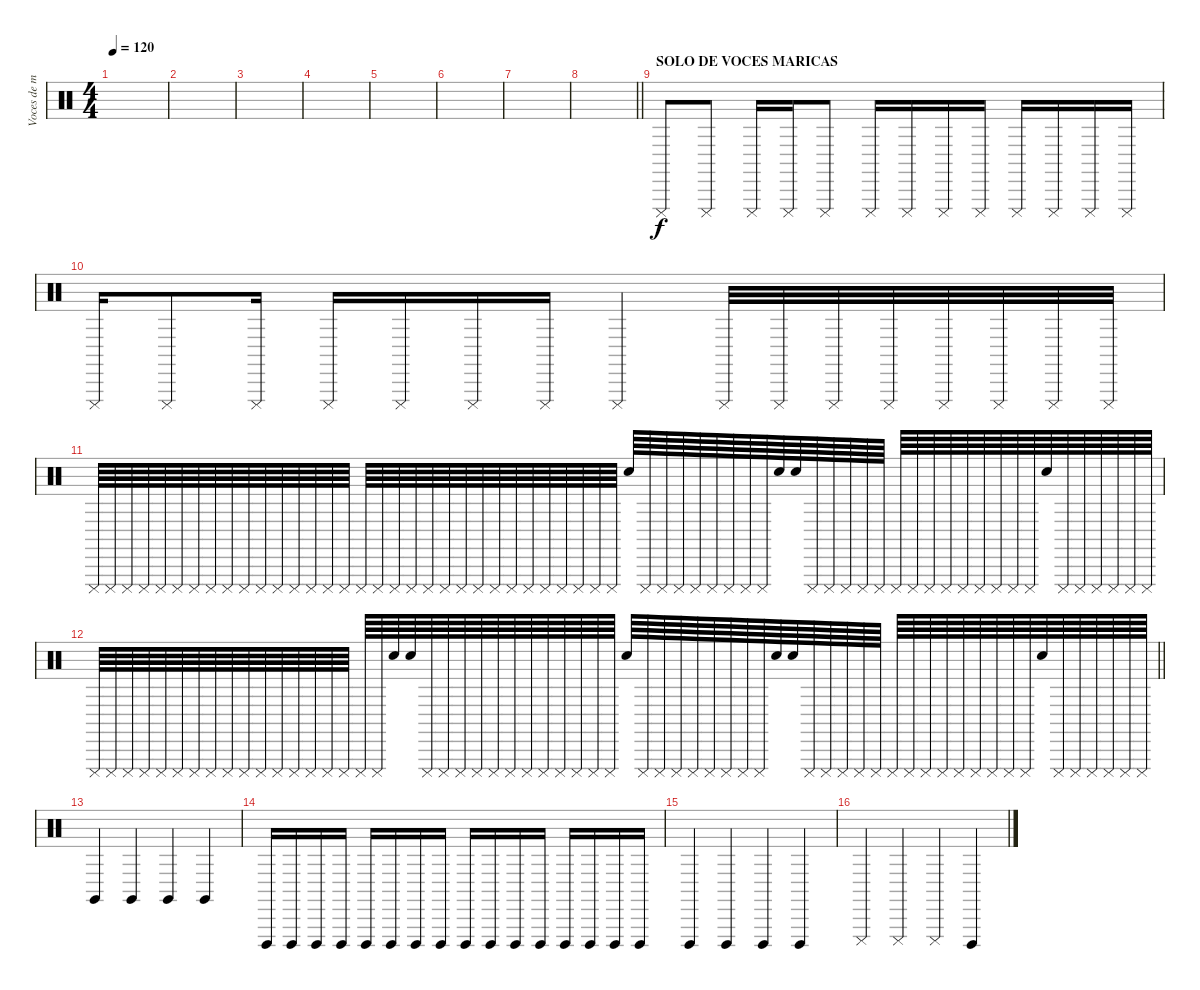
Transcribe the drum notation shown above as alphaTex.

\track ("Voces de marica!!" "Voces de m") {instrument percussion}
\staff {score}
\articulation defaults
\ts (4 4)
\tempo 120
\clef neutral
\ks c
|
|
|
|
|
|
|
\barLineRight lightlight
|
\section ("" "SOLO DE VOCES MARICAS")
"Cuica (mute)".8 "Cuica (mute)".8 "Cuica (mute)".16 "Cuica (mute)".16 "Cuica (mute)".8 "Cuica (mute)".16 "Cuica (mute)".16 "Cuica (mute)".16 "Cuica (mute)".16 "Cuica (mute)".16 "Cuica (mute)".16 "Cuica (mute)".16 "Cuica (mute)".16 |
"Cuica (mute)".16 "Cuica (mute)".8 "Cuica (mute)".16 "Cuica (mute)".16 "Cuica (mute)".16 "Cuica (mute)".16 "Cuica (mute)".16 "Cuica (mute)".4 "Cuica (mute)".32 "Cuica (mute)".32 "Cuica (mute)".32 "Cuica (mute)".32 "Cuica (mute)".32 "Cuica (mute)".32 "Cuica (mute)".32 "Cuica (mute)".32 |
"Cuica (mute)".64 "Cuica (mute)".64 "Cuica (mute)".64 "Cuica (mute)".64 "Cuica (mute)".64 "Cuica (mute)".64 "Cuica (mute)".64 "Cuica (mute)".64 "Cuica (mute)".64 "Cuica (mute)".64 "Cuica (mute)".64 "Cuica (mute)".64 "Cuica (mute)".64 "Cuica (mute)".64 "Cuica (mute)".64 "Cuica (mute)".64 "Cuica (mute)".64 "Cuica (mute)".64 "Cuica (mute)".64 "Cuica (mute)".64 "Cuica (mute)".64 "Cuica (mute)".64 "Cuica (mute)".64 "Cuica (mute)".64 "Cuica (mute)".64 "Cuica (mute)".64 "Cuica (mute)".64 "Cuica (mute)".64 "Cuica (mute)".64 "Cuica (mute)".64 "Cuica (mute)".64 "Cuica (mute)".64 "Snare (hit)".64 "Cuica (mute)".64 "Cuica (mute)".64 "Cuica (mute)".64 "Cuica (mute)".64 "Cuica (mute)".64 "Cuica (mute)".64 "Cuica (mute)".64 "Cuica (mute)".64 "Snare (hit)".64 "Snare (hit)".64 "Cuica (mute)".64 "Cuica (mute)".64 "Cuica (mute)".64 "Cuica (mute)".64 "Cuica (mute)".64 "Cuica (mute)".64 "Cuica (mute)".64 "Cuica (mute)".64 "Cuica (mute)".64 "Cuica (mute)".64 "Cuica (mute)".64 "Cuica (mute)".64 "Cuica (mute)".64 "Cuica (mute)".64 "Snare (hit)".64 "Cuica (mute)".64 "Cuica (mute)".64 "Cuica (mute)".64 "Cuica (mute)".64 "Cuica (mute)".64 "Cuica (mute)".64 |
\barLineRight lightlight "Cuica (mute)".64 "Cuica (mute)".64 "Cuica (mute)".64 "Cuica (mute)".64 "Cuica (mute)".64 "Cuica (mute)".64 "Cuica (mute)".64 "Cuica (mute)".64 "Cuica (mute)".64 "Cuica (mute)".64 "Cuica (mute)".64 "Cuica (mute)".64 "Cuica (mute)".64 "Cuica (mute)".64 "Cuica (mute)".64 "Cuica (mute)".64 "Cuica (mute)".64 "Cuica (mute)".64 "Snare (hit)".64 "Snare (hit)".64 "Cuica (mute)".64 "Cuica (mute)".64 "Cuica (mute)".64 "Cuica (mute)".64 "Cuica (mute)".64 "Cuica (mute)".64 "Cuica (mute)".64 "Cuica (mute)".64 "Cuica (mute)".64 "Cuica (mute)".64 "Cuica (mute)".64 "Cuica (mute)".64 "Snare (hit)".64 "Cuica (mute)".64 "Cuica (mute)".64 "Cuica (mute)".64 "Cuica (mute)".64 "Cuica (mute)".64 "Cuica (mute)".64 "Cuica (mute)".64 "Cuica (mute)".64 "Snare (hit)".64 "Snare (hit)".64 "Cuica (mute)".64 "Cuica (mute)".64 "Cuica (mute)".64 "Cuica (mute)".64 "Cuica (mute)".64 "Cuica (mute)".64 "Cuica (mute)".64 "Cuica (mute)".64 "Cuica (mute)".64 "Cuica (mute)".64 "Cuica (mute)".64 "Cuica (mute)".64 "Cuica (mute)".64 "Cuica (mute)".64 "Snare (hit)".64 "Cuica (mute)".64 "Cuica (mute)".64 "Cuica (mute)".64 "Cuica (mute)".64 "Cuica (mute)".64 "Cuica (mute)".64
|
"Claves (hit)".4 "Claves (hit)".4 "Claves (hit)".4 "Claves (hit)".4 |
"Cuica (open)".16 "Cuica (open)".16 "Cuica (open)".16 "Cuica (open)".16 "Cuica (open)".16 "Cuica (open)".16 "Cuica (open)".16 "Cuica (open)".16 "Cuica (open)".16 "Cuica (open)".16 "Cuica (open)".16 "Cuica (open)".16 "Cuica (open)".16 "Cuica (open)".16 "Cuica (open)".16 "Cuica (open)".16 |
"Cuica (open)".4 "Cuica (open)".4 "Cuica (open)".4 "Cuica (open)".4 |
"Cuica (mute)".4 "Cuica (mute)".4 "Cuica (mute)".4 "Cuica (open)".4
